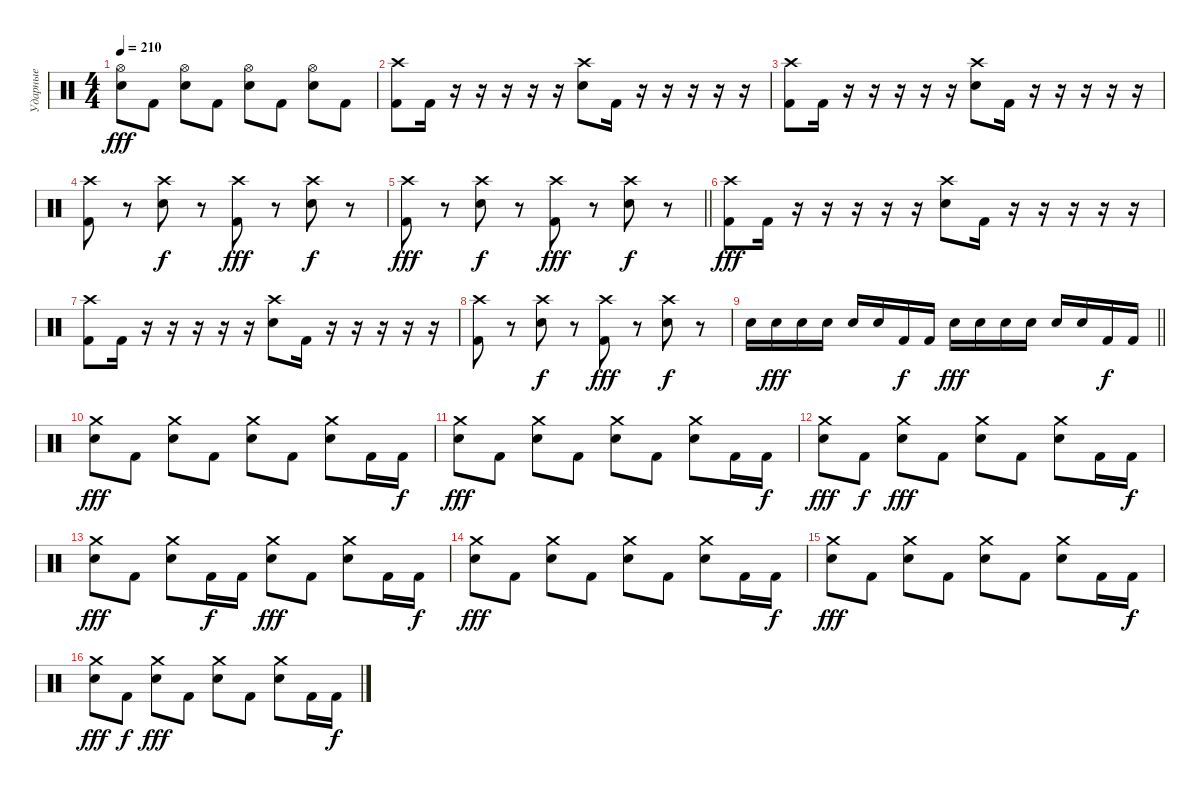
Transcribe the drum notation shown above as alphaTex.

\track ("Ударные" "Ударные") {instrument percussion}
\staff {score}
\articulation defaults
\ts (4 4)
\tempo 210
\clef neutral
\ks c
("Hi-Hat (open)" "Electric Snare (hit)").8{dy fff} "Kick (hit) 2".8 ("Hi-Hat (open)" "Electric Snare (hit)").8 "Kick (hit) 2".8 ("Hi-Hat (open)" "Electric Snare (hit)").8 "Kick (hit) 2".8 ("Hi-Hat (open)" "Electric Snare (hit)").8 "Kick (hit) 2".8 |
("Crash high (hit)" "Kick (hit) 2").8 "Kick (hit) 2".16 r.16 r.16 r.16 r.16 r.16 ("Crash high (hit)" "Electric Snare (hit)").8 "Kick (hit) 2".16 r.16 r.16 r.16 r.16 r.16 |
("Crash high (hit)" "Kick (hit) 2").8 "Kick (hit) 2".16 r.16 r.16 r.16 r.16 r.16 ("Crash high (hit)" "Electric Snare (hit)").8 "Kick (hit) 2".16 r.16 r.16 r.16 r.16 r.16 |
("Crash high (hit)" "Kick (hit) 2").8 r.8 ("Crash high (hit)" "Electric Snare (hit)").8{dy f} r.8 ("Crash high (hit)" "Kick (hit) 2").8{dy fff} r.8 ("Crash high (hit)" "Electric Snare (hit)").8{dy f} r.8 |
\barLineRight lightlight
("Crash high (hit)" "Kick (hit) 2").8{dy fff} r.8 ("Crash high (hit)" "Electric Snare (hit)").8{dy f} r.8 ("Crash high (hit)" "Kick (hit) 2").8{dy fff} r.8 ("Crash high (hit)" "Electric Snare (hit)").8{dy f} r.8 |
("Crash high (hit)" "Kick (hit) 2").8{dy fff} "Kick (hit) 2".16 r.16 r.16 r.16 r.16 r.16 ("Crash high (hit)" "Electric Snare (hit)").8 "Kick (hit) 2".16 r.16 r.16 r.16 r.16 r.16 |
("Crash high (hit)" "Kick (hit) 2").8 "Kick (hit) 2".16 r.16 r.16 r.16 r.16 r.16 ("Crash high (hit)" "Electric Snare (hit)").8 "Kick (hit) 2".16 r.16 r.16 r.16 r.16 r.16 |
("Crash high (hit)" "Kick (hit) 2").8 r.8 ("Crash high (hit)" "Electric Snare (hit)").8{dy f} r.8 ("Crash high (hit)" "Kick (hit) 2").8{dy fff} r.8 ("Crash high (hit)" "Electric Snare (hit)").8{dy f} r.8 |
\barLineRight lightlight "Electric Snare (hit)".16 "Electric Snare (hit)".16{dy fff} "Electric Snare (hit)".16 "Electric Snare (hit)".16 "Electric Snare (hit)".16 "Electric Snare (hit)".16 "Kick (hit) 2".16{dy f} "Kick (hit) 2".16 "Electric Snare (hit)".16{dy fff} "Electric Snare (hit)".16 "Electric Snare (hit)".16 "Electric Snare (hit)".16 "Electric Snare (hit)".16 "Electric Snare (hit)".16 "Kick (hit) 2".16{dy f} "Kick (hit) 2".16
|
("Crash medium (hit)" "Electric Snare (hit)").8{dy fff} "Kick (hit) 2".8 ("Crash medium (hit)" "Electric Snare (hit)").8 "Kick (hit) 2".8 ("Crash medium (hit)" "Electric Snare (hit)").8 "Kick (hit) 2".8 ("Crash medium (hit)" "Electric Snare (hit)").8 "Kick (hit) 2".16 "Kick (hit) 2".16{dy f} |
("Crash medium (hit)" "Electric Snare (hit)").8{dy fff} "Kick (hit) 2".8 ("Crash medium (hit)" "Electric Snare (hit)").8 "Kick (hit) 2".8 ("Crash medium (hit)" "Electric Snare (hit)").8 "Kick (hit) 2".8 ("Crash medium (hit)" "Electric Snare (hit)").8 "Kick (hit) 2".16 "Kick (hit) 2".16{dy f} |
("Crash medium (hit)" "Electric Snare (hit)").8{dy fff} "Kick (hit) 2".8{dy f} ("Crash medium (hit)" "Electric Snare (hit)").8{dy fff} "Kick (hit) 2".8 ("Crash medium (hit)" "Electric Snare (hit)").8 "Kick (hit) 2".8 ("Crash medium (hit)" "Electric Snare (hit)").8 "Kick (hit) 2".16 "Kick (hit) 2".16{dy f} |
("Crash medium (hit)" "Electric Snare (hit)").8{dy fff} "Kick (hit) 2".8 ("Crash medium (hit)" "Electric Snare (hit)").8 "Kick (hit) 2".16{dy f} "Kick (hit) 2".16 ("Crash medium (hit)" "Electric Snare (hit)").8{dy fff} "Kick (hit) 2".8 ("Crash medium (hit)" "Electric Snare (hit)").8 "Kick (hit) 2".16 "Kick (hit) 2".16{dy f} |
("Crash medium (hit)" "Electric Snare (hit)").8{dy fff} "Kick (hit) 2".8 ("Crash medium (hit)" "Electric Snare (hit)").8 "Kick (hit) 2".8 ("Crash medium (hit)" "Electric Snare (hit)").8 "Kick (hit) 2".8 ("Crash medium (hit)" "Electric Snare (hit)").8 "Kick (hit) 2".16 "Kick (hit) 2".16{dy f} |
("Crash medium (hit)" "Electric Snare (hit)").8{dy fff} "Kick (hit) 2".8 ("Crash medium (hit)" "Electric Snare (hit)").8 "Kick (hit) 2".8 ("Crash medium (hit)" "Electric Snare (hit)").8 "Kick (hit) 2".8 ("Crash medium (hit)" "Electric Snare (hit)").8 "Kick (hit) 2".16 "Kick (hit) 2".16{dy f} |
("Crash medium (hit)" "Electric Snare (hit)").8{dy fff} "Kick (hit) 2".8{dy f} ("Crash medium (hit)" "Electric Snare (hit)").8{dy fff} "Kick (hit) 2".8 ("Crash medium (hit)" "Electric Snare (hit)").8 "Kick (hit) 2".8 ("Crash medium (hit)" "Electric Snare (hit)").8 "Kick (hit) 2".16 "Kick (hit) 2".16{dy f}
